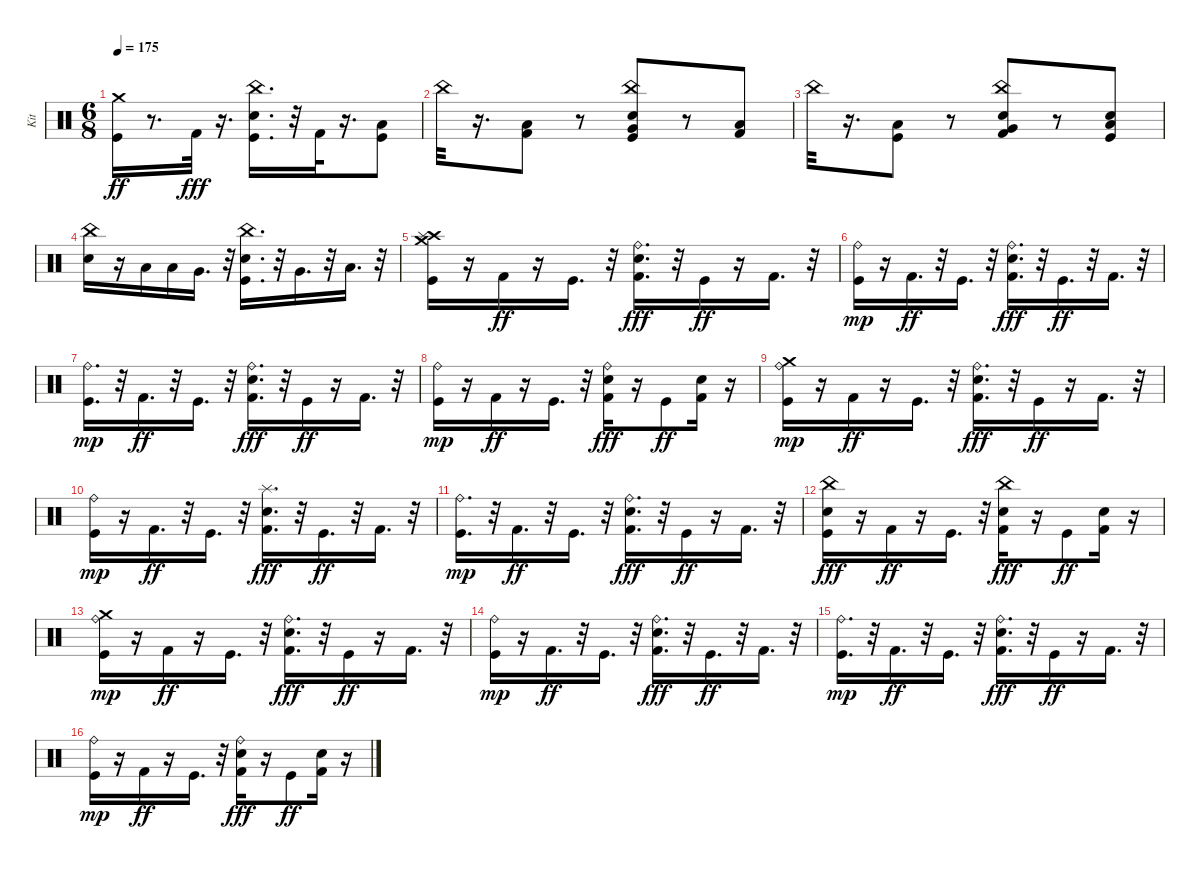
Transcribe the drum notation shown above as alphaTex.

\track ("Kit" "Kit") {instrument percussion}
\staff {score}
\articulation defaults
\ts (6 8)
\tempo 175
\clef neutral
\ks c
("Kick (hit)" "Crash medium (hit)").16{dy ff} r.8{d} "Kick (hit) 2".32{dy fff} r.16{d} ("Kick (hit)" "Snare (hit) 2" "China (hit)").16{d} r.32 "Kick (hit) 2".32 r.16{d} ("Kick (hit)" "Low Floor Tom (hit)").8 |
"China (hit)".32 r.16{d} ("Kick (hit) 2" "Low Floor Tom (hit)").8 r.8 ("Kick (hit)" "Snare (hit) 2" "Very Low Tom (hit)" "China (hit)").8 r.8 ("Kick (hit) 2" "Low Floor Tom (hit)").8 |
"China (hit)".32 r.16{d} ("Kick (hit)" "Low Floor Tom (hit)").8 r.8 ("Kick (hit) 2" "Snare (hit) 2" "Very Low Tom (hit)" "China (hit)").8 r.8 ("Kick (hit)" "Snare (hit) 2" "Low Floor Tom (hit)").8 |
("Snare (hit) 2" "China (hit)").16 r.16 "Low Tom (hit)".16 "Low Tom (hit)".16 "Very Low Tom (hit)".16{d} r.32 ("Kick (hit)" "Snare (hit) 2" "China (hit)").16{d} r.32 "Very Low Tom (hit)".16{d} r.32 "Low Floor Tom (hit)".16{d} r.32 |
("Kick (hit)" "Crash high (hit)" "Splash (hit)" "Crash medium (hit)").16 r.16 "Kick (hit) 2".16{dy ff} r.16 "Kick (hit)".16{d} r.32 ("Kick (hit) 2" "Snare (hit) 2" "Ride (bell)").16{d dy fff} r.32 "Kick (hit)".16{dy ff} r.16 "Kick (hit) 2".16{d} r.32 |
("Kick (hit)" "Ride (bell)").16{dy mp} r.16 "Kick (hit) 2".16{d dy ff} r.32 "Kick (hit)".16{d} r.32 ("Kick (hit) 2" "Snare (hit) 2" "Ride (bell)").16{d dy fff} r.32 "Kick (hit)".16{d dy ff} r.32 "Kick (hit) 2".16{d} r.32 |
("Kick (hit)" "Ride (bell)").16{d dy mp} r.32 "Kick (hit) 2".16{d dy ff} r.32 "Kick (hit)".16{d} r.32 ("Kick (hit) 2" "Snare (hit) 2" "Ride (bell)").16{d dy fff} r.32 "Kick (hit)".16{dy ff} r.16 "Kick (hit) 2".16{d} r.32 |
("Kick (hit)" "Ride (bell)").16{dy mp} r.16 "Kick (hit) 2".16{dy ff} r.16 "Kick (hit)".16{d} r.32 ("Kick (hit) 2" "Snare (hit) 2" "Ride (bell)").16{dy fff} r.16 "Kick (hit)".8{dy ff} ("Kick (hit) 2" "Snare (hit) 2").16 r.16 |
("Kick (hit)" "Ride (bell)" "Crash medium (hit)").16{dy mp} r.16 "Kick (hit) 2".16{dy ff} r.16 "Kick (hit)".16{d} r.32 ("Kick (hit) 2" "Snare (hit) 2" "Ride (bell)").16{d dy fff} r.32 "Kick (hit)".16{dy ff} r.16 "Kick (hit) 2".16{d} r.32 |
("Kick (hit)" "Ride (bell)").16{dy mp} r.16 "Kick (hit) 2".16{d dy ff} r.32 "Kick (hit)".16{d} r.32 ("Kick (hit) 2" "Snare (hit) 2" "Splash (hit)").16{d dy fff} r.32 "Kick (hit)".16{d dy ff} r.32 "Kick (hit) 2".16{d} r.32 |
("Kick (hit)" "Ride (bell)").16{d dy mp} r.32 "Kick (hit) 2".16{d dy ff} r.32 "Kick (hit)".16{d} r.32 ("Kick (hit) 2" "Snare (hit) 2" "Ride (bell)").16{d dy fff} r.32 "Kick (hit)".16{dy ff} r.16 "Kick (hit) 2".16{d} r.32 |
("Kick (hit)" "Snare (hit) 2" "China (hit)").16{dy fff} r.16 "Kick (hit) 2".16{dy ff} r.16 "Kick (hit)".16{d} r.32 ("Kick (hit) 2" "Snare (hit) 2" "China (hit)").16{dy fff} r.16 "Kick (hit)".8{dy ff} ("Kick (hit) 2" "Snare (hit) 2").16 r.16 |
("Kick (hit)" "Ride (bell)" "Crash medium (hit)").16{dy mp} r.16 "Kick (hit) 2".16{dy ff} r.16 "Kick (hit)".16{d} r.32 ("Kick (hit) 2" "Snare (hit) 2" "Ride (bell)").16{d dy fff} r.32 "Kick (hit)".16{dy ff} r.16 "Kick (hit) 2".16{d} r.32 |
("Kick (hit)" "Ride (bell)").16{dy mp} r.16 "Kick (hit) 2".16{d dy ff} r.32 "Kick (hit)".16{d} r.32 ("Kick (hit) 2" "Snare (hit) 2" "Ride (bell)").16{d dy fff} r.32 "Kick (hit)".16{d dy ff} r.32 "Kick (hit) 2".16{d} r.32 |
("Kick (hit)" "Ride (bell)").16{d dy mp} r.32 "Kick (hit) 2".16{d dy ff} r.32 "Kick (hit)".16{d} r.32 ("Kick (hit) 2" "Snare (hit) 2" "Ride (bell)").16{d dy fff} r.32 "Kick (hit)".16{dy ff} r.16 "Kick (hit) 2".16{d} r.32 |
("Kick (hit)" "Ride (bell)").16{dy mp} r.16 "Kick (hit) 2".16{dy ff} r.16 "Kick (hit)".16{d} r.32 ("Kick (hit) 2" "Snare (hit) 2" "Ride (bell)").16{dy fff} r.16 "Kick (hit)".8{dy ff} ("Kick (hit) 2" "Snare (hit) 2").16 r.16
